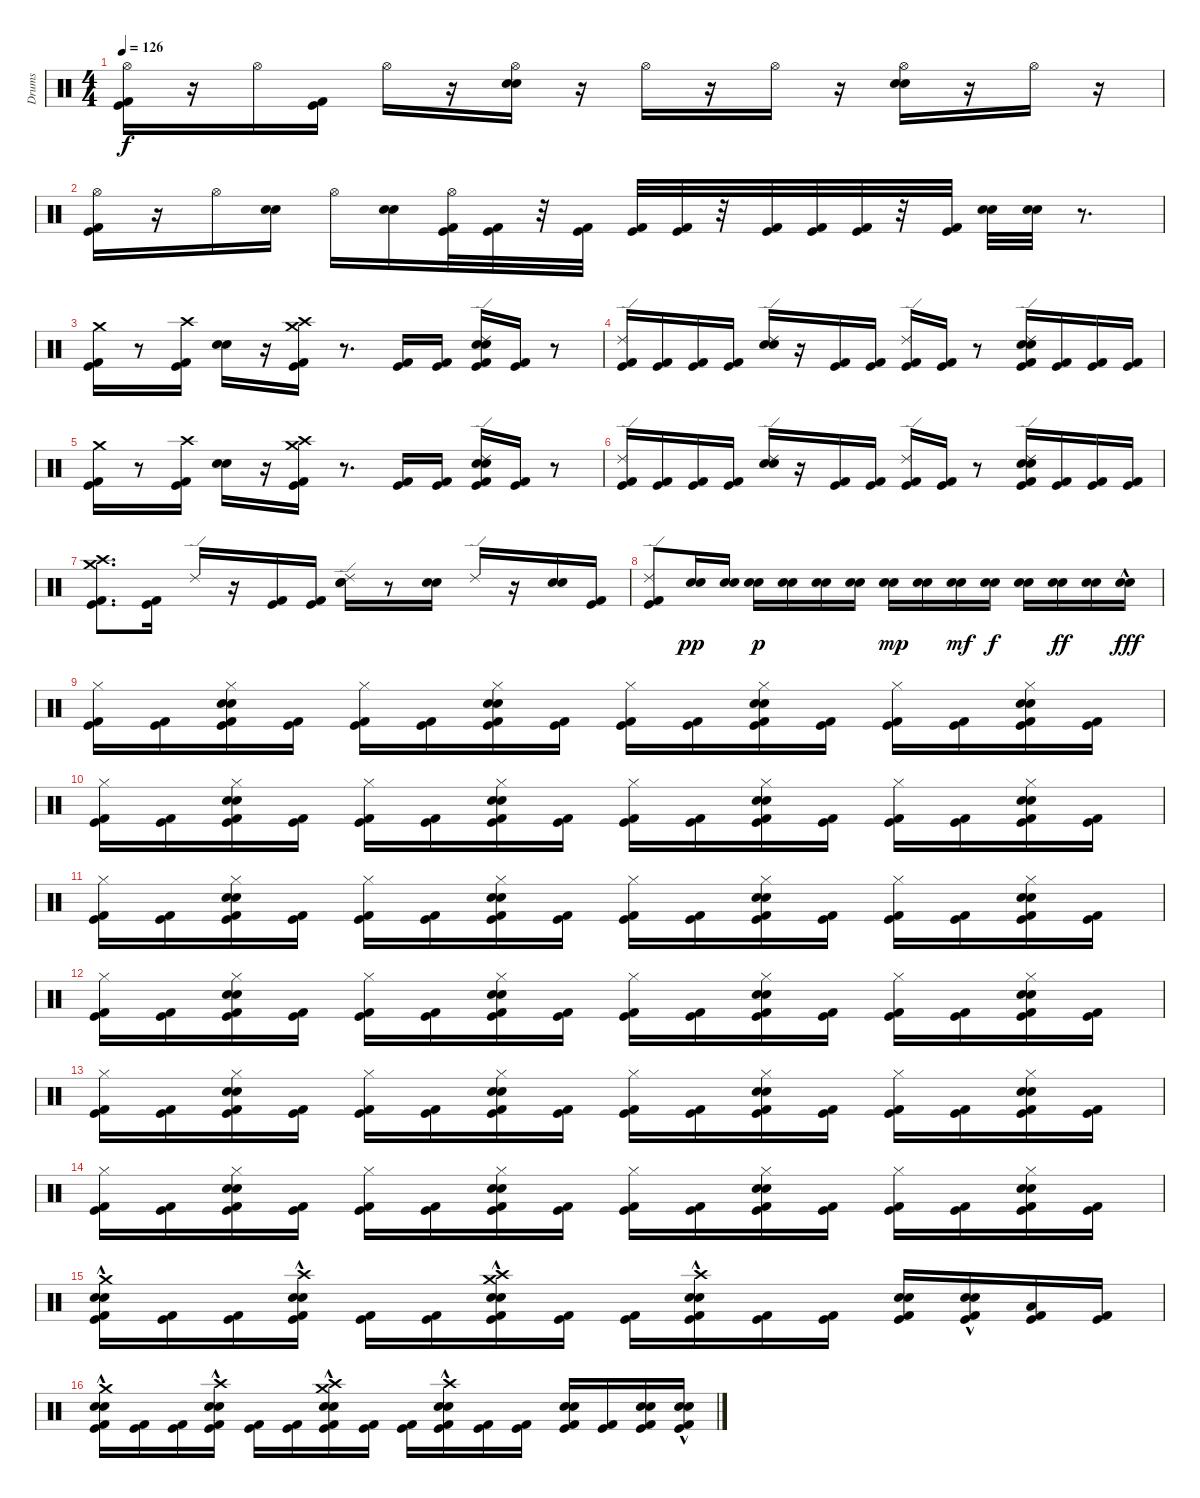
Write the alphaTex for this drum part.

\track ("Drums" "Drums") {instrument percussion}
\staff {score}
\articulation defaults
\ts (4 4)
\tempo 126
\clef neutral
\ks c
("Hi-Hat (open)" "Kick (hit) 2" "Kick (hit)").16{dy f} r.16 "Hi-Hat (open)".16 ("Kick (hit) 2" "Kick (hit)").16 "Hi-Hat (open)".16 r.16 ("Hi-Hat (open)" "Electric Snare (hit)" "Snare (hit) 2").16 r.16 "Hi-Hat (open)".16 r.16 "Hi-Hat (open)".16 r.16 ("Electric Snare (hit)" "Snare (hit) 2" "Hi-Hat (open)").16 r.16 "Hi-Hat (open)".16 r.16 |
("Hi-Hat (open)" "Kick (hit) 2" "Kick (hit)").16 r.16 "Hi-Hat (open)".16 ("Electric Snare (hit)" "Snare (hit) 2").16 "Hi-Hat (open)".16 ("Electric Snare (hit)" "Snare (hit) 2").16 ("Hi-Hat (open)" "Kick (hit) 2" "Kick (hit)").32 ("Kick (hit) 2" "Kick (hit)").32 r.32 ("Kick (hit) 2" "Kick (hit)").32 ("Kick (hit) 2" "Kick (hit)").32 ("Kick (hit) 2" "Kick (hit)").32 r.32 ("Kick (hit) 2" "Kick (hit)").32 ("Kick (hit) 2" "Kick (hit)").32 ("Kick (hit) 2" "Kick (hit)").32 r.32 ("Kick (hit) 2" "Kick (hit)").32 ("Electric Snare (hit)" "Snare (hit) 2").32 ("Electric Snare (hit)" "Snare (hit) 2").32 r.8{d} |
("Crash medium (hit)" "Kick (hit) 2" "Kick (hit)").16 r.8 ("Crash high (hit)" "Kick (hit) 2" "Kick (hit)").16 ("Electric Snare (hit)" "Snare (hit) 2").16 r.16 ("Crash high (hit)" "Crash medium (hit)" "Kick (hit) 2" "Kick (hit)").16 r.8{d} ("Kick (hit) 2" "Kick (hit)").16 ("Kick (hit) 2" "Kick (hit)").16 ("Ride (edge) 2" "Electric Snare (hit)" "Snare (hit) 2" "Kick (hit) 2" "Kick (hit)").16 ("Kick (hit) 2" "Kick (hit)").16 r.8 |
("Ride (edge) 2" "Kick (hit) 2" "Kick (hit)").16 ("Kick (hit) 2" "Kick (hit)").16 ("Kick (hit) 2" "Kick (hit)").16 ("Kick (hit) 2" "Kick (hit)").16 ("Ride (edge) 2" "Electric Snare (hit)" "Snare (hit) 2").16 r.16 ("Kick (hit) 2" "Kick (hit)").16 ("Kick (hit) 2" "Kick (hit)").16 ("Ride (edge) 2" "Kick (hit) 2" "Kick (hit)").16 ("Kick (hit) 2" "Kick (hit)").16 r.8 ("Ride (edge) 2" "Electric Snare (hit)" "Snare (hit) 2" "Kick (hit) 2" "Kick (hit)").16 ("Kick (hit) 2" "Kick (hit)").16 ("Kick (hit) 2" "Kick (hit)").16 ("Kick (hit) 2" "Kick (hit)").16 |
("Crash medium (hit)" "Kick (hit) 2" "Kick (hit)").16 r.8 ("Crash high (hit)" "Kick (hit) 2" "Kick (hit)").16 ("Electric Snare (hit)" "Snare (hit) 2").16 r.16 ("Crash high (hit)" "Crash medium (hit)" "Kick (hit) 2" "Kick (hit)").16 r.8{d} ("Kick (hit) 2" "Kick (hit)").16 ("Kick (hit) 2" "Kick (hit)").16 ("Ride (edge) 2" "Electric Snare (hit)" "Snare (hit) 2" "Kick (hit) 2" "Kick (hit)").16 ("Kick (hit) 2" "Kick (hit)").16 r.8 |
("Ride (edge) 2" "Kick (hit) 2" "Kick (hit)").16 ("Kick (hit) 2" "Kick (hit)").16 ("Kick (hit) 2" "Kick (hit)").16 ("Kick (hit) 2" "Kick (hit)").16 ("Ride (edge) 2" "Electric Snare (hit)" "Snare (hit) 2").16 r.16 ("Kick (hit) 2" "Kick (hit)").16 ("Kick (hit) 2" "Kick (hit)").16 ("Ride (edge) 2" "Kick (hit) 2" "Kick (hit)").16 ("Kick (hit) 2" "Kick (hit)").16 r.8 ("Ride (edge) 2" "Electric Snare (hit)" "Snare (hit) 2" "Kick (hit) 2" "Kick (hit)").16 ("Kick (hit) 2" "Kick (hit)").16 ("Kick (hit) 2" "Kick (hit)").16 ("Kick (hit) 2" "Kick (hit)").16 |
("Crash high (hit)" "Crash medium (hit)" "Kick (hit) 2" "Kick (hit)").8{d} ("Kick (hit) 2" "Kick (hit)").16 "Ride (edge) 2".16 r.16 ("Kick (hit) 2" "Kick (hit)").16 ("Kick (hit) 2" "Kick (hit)").16 ("Ride (edge) 2" "Electric Snare (hit)" "Snare (hit) 2").16 r.8 ("Electric Snare (hit)" "Snare (hit) 2").16 "Ride (edge) 2".16 r.16 ("Electric Snare (hit)" "Snare (hit) 2").16 ("Kick (hit) 2" "Kick (hit)").16 |
("Ride (edge) 2" "Kick (hit) 2" "Kick (hit)").8 ("Snare (hit) 2" "Electric Snare (hit)").16{dy pp} ("Snare (hit) 2" "Electric Snare (hit)").16 ("Snare (hit) 2" "Electric Snare (hit)").16{dy p} ("Electric Snare (hit)" "Snare (hit) 2").16 ("Electric Snare (hit)" "Snare (hit) 2").16 ("Electric Snare (hit)" "Snare (hit) 2").16 ("Snare (hit) 2" "Electric Snare (hit)").16{dy mp} ("Snare (hit) 2" "Electric Snare (hit)").16 ("Snare (hit) 2" "Electric Snare (hit)").16{dy mf} ("Snare (hit) 2" "Electric Snare (hit)").16{dy f} ("Snare (hit) 2" "Electric Snare (hit)").16 ("Snare (hit) 2" "Electric Snare (hit)").16{dy ff} ("Electric Snare (hit)" "Snare (hit) 2").16 ("Electric Snare (hit)"{hac} "Snare (hit) 2"{hac}).16{dy fff} |
("Hi-Hat (closed)" "Kick (hit) 2" "Kick (hit)").16 ("Kick (hit) 2" "Kick (hit)").16 ("Hi-Hat (closed)" "Electric Snare (hit)" "Kick (hit) 2" "Snare (hit) 2" "Kick (hit)").16 ("Kick (hit) 2" "Kick (hit)").16 ("Hi-Hat (closed)" "Kick (hit) 2" "Kick (hit)").16 ("Kick (hit) 2" "Kick (hit)").16 ("Hi-Hat (closed)" "Electric Snare (hit)" "Snare (hit) 2" "Kick (hit) 2" "Kick (hit)").16 ("Kick (hit) 2" "Kick (hit)").16 ("Hi-Hat (closed)" "Kick (hit) 2" "Kick (hit)").16 ("Kick (hit) 2" "Kick (hit)").16 ("Hi-Hat (closed)" "Electric Snare (hit)" "Kick (hit) 2" "Snare (hit) 2" "Kick (hit)").16 ("Kick (hit) 2" "Kick (hit)").16 ("Hi-Hat (closed)" "Kick (hit) 2" "Kick (hit)").16 ("Kick (hit) 2" "Kick (hit)").16 ("Hi-Hat (closed)" "Electric Snare (hit)" "Snare (hit) 2" "Kick (hit) 2" "Kick (hit)").16 ("Kick (hit) 2" "Kick (hit)").16 |
("Hi-Hat (closed)" "Kick (hit) 2" "Kick (hit)").16 ("Kick (hit) 2" "Kick (hit)").16 ("Hi-Hat (closed)" "Electric Snare (hit)" "Kick (hit) 2" "Snare (hit) 2" "Kick (hit)").16 ("Kick (hit) 2" "Kick (hit)").16 ("Hi-Hat (closed)" "Kick (hit) 2" "Kick (hit)").16 ("Kick (hit) 2" "Kick (hit)").16 ("Hi-Hat (closed)" "Electric Snare (hit)" "Snare (hit) 2" "Kick (hit) 2" "Kick (hit)").16 ("Kick (hit) 2" "Kick (hit)").16 ("Hi-Hat (closed)" "Kick (hit) 2" "Kick (hit)").16 ("Kick (hit) 2" "Kick (hit)").16 ("Hi-Hat (closed)" "Electric Snare (hit)" "Kick (hit) 2" "Snare (hit) 2" "Kick (hit)").16 ("Kick (hit) 2" "Kick (hit)").16 ("Hi-Hat (closed)" "Kick (hit) 2" "Kick (hit)").16 ("Kick (hit) 2" "Kick (hit)").16 ("Hi-Hat (closed)" "Electric Snare (hit)" "Snare (hit) 2" "Kick (hit) 2" "Kick (hit)").16 ("Kick (hit) 2" "Kick (hit)").16 |
("Hi-Hat (closed)" "Kick (hit) 2" "Kick (hit)").16 ("Kick (hit) 2" "Kick (hit)").16 ("Hi-Hat (closed)" "Electric Snare (hit)" "Kick (hit) 2" "Snare (hit) 2" "Kick (hit)").16 ("Kick (hit) 2" "Kick (hit)").16 ("Hi-Hat (closed)" "Kick (hit) 2" "Kick (hit)").16 ("Kick (hit) 2" "Kick (hit)").16 ("Hi-Hat (closed)" "Electric Snare (hit)" "Snare (hit) 2" "Kick (hit) 2" "Kick (hit)").16 ("Kick (hit) 2" "Kick (hit)").16 ("Hi-Hat (closed)" "Kick (hit) 2" "Kick (hit)").16 ("Kick (hit) 2" "Kick (hit)").16 ("Hi-Hat (closed)" "Electric Snare (hit)" "Kick (hit) 2" "Snare (hit) 2" "Kick (hit)").16 ("Kick (hit) 2" "Kick (hit)").16 ("Hi-Hat (closed)" "Kick (hit) 2" "Kick (hit)").16 ("Kick (hit) 2" "Kick (hit)").16 ("Hi-Hat (closed)" "Electric Snare (hit)" "Snare (hit) 2" "Kick (hit) 2" "Kick (hit)").16 ("Kick (hit) 2" "Kick (hit)").16 |
("Hi-Hat (closed)" "Kick (hit) 2" "Kick (hit)").16 ("Kick (hit) 2" "Kick (hit)").16 ("Hi-Hat (closed)" "Electric Snare (hit)" "Kick (hit) 2" "Snare (hit) 2" "Kick (hit)").16 ("Kick (hit) 2" "Kick (hit)").16 ("Hi-Hat (closed)" "Kick (hit) 2" "Kick (hit)").16 ("Kick (hit) 2" "Kick (hit)").16 ("Hi-Hat (closed)" "Electric Snare (hit)" "Snare (hit) 2" "Kick (hit) 2" "Kick (hit)").16 ("Kick (hit) 2" "Kick (hit)").16 ("Hi-Hat (closed)" "Kick (hit) 2" "Kick (hit)").16 ("Kick (hit) 2" "Kick (hit)").16 ("Hi-Hat (closed)" "Electric Snare (hit)" "Kick (hit) 2" "Snare (hit) 2" "Kick (hit)").16 ("Kick (hit) 2" "Kick (hit)").16 ("Hi-Hat (closed)" "Kick (hit) 2" "Kick (hit)").16 ("Kick (hit) 2" "Kick (hit)").16 ("Hi-Hat (closed)" "Electric Snare (hit)" "Snare (hit) 2" "Kick (hit) 2" "Kick (hit)").16 ("Kick (hit) 2" "Kick (hit)").16 |
("Hi-Hat (closed)" "Kick (hit) 2" "Kick (hit)").16 ("Kick (hit) 2" "Kick (hit)").16 ("Hi-Hat (closed)" "Electric Snare (hit)" "Kick (hit) 2" "Snare (hit) 2" "Kick (hit)").16 ("Kick (hit) 2" "Kick (hit)").16 ("Hi-Hat (closed)" "Kick (hit) 2" "Kick (hit)").16 ("Kick (hit) 2" "Kick (hit)").16 ("Hi-Hat (closed)" "Electric Snare (hit)" "Snare (hit) 2" "Kick (hit) 2" "Kick (hit)").16 ("Kick (hit) 2" "Kick (hit)").16 ("Hi-Hat (closed)" "Kick (hit) 2" "Kick (hit)").16 ("Kick (hit) 2" "Kick (hit)").16 ("Hi-Hat (closed)" "Electric Snare (hit)" "Kick (hit) 2" "Snare (hit) 2" "Kick (hit)").16 ("Kick (hit) 2" "Kick (hit)").16 ("Hi-Hat (closed)" "Kick (hit) 2" "Kick (hit)").16 ("Kick (hit) 2" "Kick (hit)").16 ("Hi-Hat (closed)" "Electric Snare (hit)" "Snare (hit) 2" "Kick (hit) 2" "Kick (hit)").16 ("Kick (hit) 2" "Kick (hit)").16 |
("Hi-Hat (closed)" "Kick (hit) 2" "Kick (hit)").16 ("Kick (hit) 2" "Kick (hit)").16 ("Hi-Hat (closed)" "Electric Snare (hit)" "Kick (hit) 2" "Snare (hit) 2" "Kick (hit)").16 ("Kick (hit) 2" "Kick (hit)").16 ("Hi-Hat (closed)" "Kick (hit) 2" "Kick (hit)").16 ("Kick (hit) 2" "Kick (hit)").16 ("Hi-Hat (closed)" "Electric Snare (hit)" "Snare (hit) 2" "Kick (hit) 2" "Kick (hit)").16 ("Kick (hit) 2" "Kick (hit)").16 ("Hi-Hat (closed)" "Kick (hit) 2" "Kick (hit)").16 ("Kick (hit) 2" "Kick (hit)").16 ("Hi-Hat (closed)" "Electric Snare (hit)" "Kick (hit) 2" "Snare (hit) 2" "Kick (hit)").16 ("Kick (hit) 2" "Kick (hit)").16 ("Hi-Hat (closed)" "Kick (hit) 2" "Kick (hit)").16 ("Kick (hit) 2" "Kick (hit)").16 ("Hi-Hat (closed)" "Electric Snare (hit)" "Snare (hit) 2" "Kick (hit) 2" "Kick (hit)").16 ("Kick (hit) 2" "Kick (hit)").16 |
("Crash medium (hit)"{hac} "Electric Snare (hit)"{hac} "Snare (hit) 2"{hac} "Kick (hit) 2" "Kick (hit)").16 ("Kick (hit) 2" "Kick (hit)").16 ("Kick (hit) 2" "Kick (hit)").16 ("Crash high (hit)"{hac} "Electric Snare (hit)"{hac} "Snare (hit) 2"{hac} "Kick (hit) 2" "Kick (hit)").16 ("Kick (hit) 2" "Kick (hit)").16 ("Kick (hit) 2" "Kick (hit)").16 ("Crash high (hit)"{hac} "Crash medium (hit)" "Electric Snare (hit)"{hac} "Snare (hit) 2"{hac} "Kick (hit) 2" "Kick (hit)").16 ("Kick (hit) 2" "Kick (hit)").16 ("Kick (hit) 2" "Kick (hit)").16 ("Crash high (hit)" "Electric Snare (hit)"{hac} "Snare (hit) 2"{hac} "Kick (hit) 2" "Kick (hit)").16 ("Kick (hit) 2" "Kick (hit)").16 ("Kick (hit) 2" "Kick (hit)").16 ("Electric Snare (hit)" "Snare (hit) 2" "Kick (hit) 2" "Kick (hit)").16 ("Electric Snare (hit)"{hac} "Snare (hit) 2"{hac} "Kick (hit) 2" "Kick (hit)").16 ("Low Floor Tom (hit)" "Kick (hit) 2" "Kick (hit)").16 ("Kick (hit) 2" "Kick (hit)").16 |
("Crash medium (hit)"{hac} "Electric Snare (hit)"{hac} "Snare (hit) 2"{hac} "Kick (hit) 2" "Kick (hit)").16 ("Kick (hit) 2" "Kick (hit)").16 ("Kick (hit) 2" "Kick (hit)").16 ("Crash high (hit)"{hac} "Electric Snare (hit)"{hac} "Snare (hit) 2"{hac} "Kick (hit) 2" "Kick (hit)").16 ("Kick (hit) 2" "Kick (hit)").16 ("Kick (hit) 2" "Kick (hit)").16 ("Crash high (hit)"{hac} "Crash medium (hit)" "Electric Snare (hit)"{hac} "Snare (hit) 2"{hac} "Kick (hit) 2" "Kick (hit)").16 ("Kick (hit) 2" "Kick (hit)").16 ("Kick (hit) 2" "Kick (hit)").16 ("Crash high (hit)" "Electric Snare (hit)"{hac} "Snare (hit) 2"{hac} "Kick (hit) 2" "Kick (hit)").16 ("Kick (hit) 2" "Kick (hit)").16 ("Kick (hit) 2" "Kick (hit)").16 ("Electric Snare (hit)" "Snare (hit) 2" "Kick (hit) 2" "Kick (hit)").16 ("Kick (hit) 2" "Kick (hit)").16 ("Electric Snare (hit)" "Snare (hit) 2" "Kick (hit) 2" "Kick (hit)").16 ("Electric Snare (hit)"{hac} "Snare (hit) 2"{hac} "Kick (hit) 2" "Kick (hit)").16
